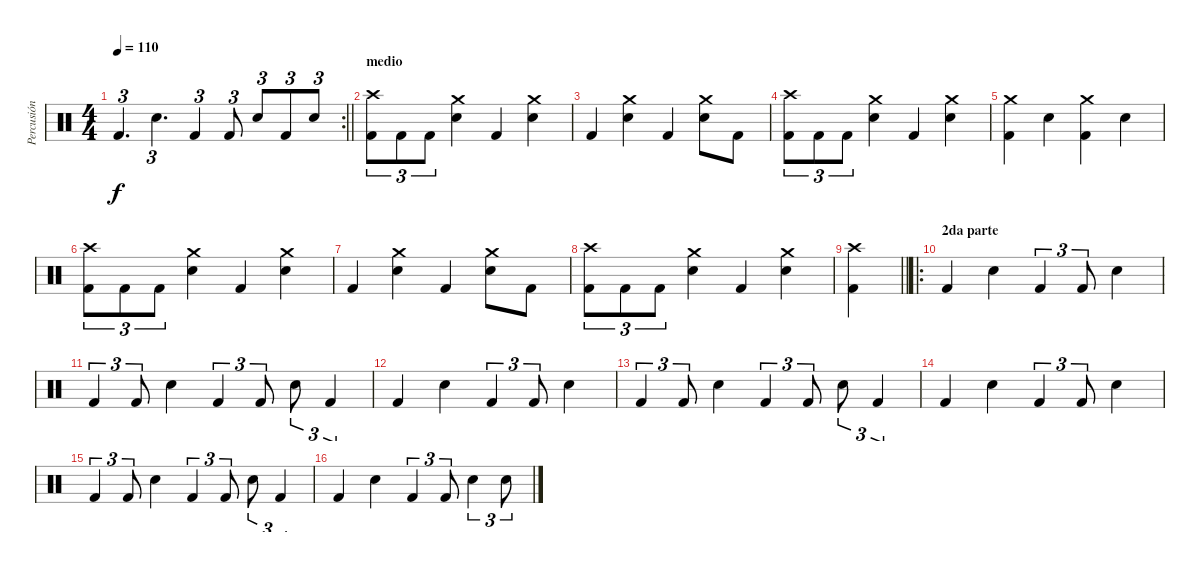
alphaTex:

\track ("Percusión" "Percusión") {instrument percussion}
\staff {score}
\articulation defaults
\rc 2
\ts (4 4)
\tempo 110
\clef neutral
\barLineRight lightlight
\ks c "Kick (hit) 2".4{d tu (3 2) dy f} "Electric Snare (hit)".4{d tu (3 2)} "Kick (hit) 2".4{tu (3 2)} "Kick (hit) 2".8{tu (3 2)} "Electric Snare (hit)".8{tu (3 2)} "Kick (hit) 2".8{tu (3 2)} "Electric Snare (hit)".8{tu (3 2)}
|
\section ("" "medio")
("Crash high (hit)" "Kick (hit) 2").8{tu (3 2)} "Kick (hit) 2".8{tu (3 2)} "Kick (hit) 2".8{tu (3 2)} ("Crash medium (hit)" "Electric Snare (hit)").4 "Kick (hit) 2".4 ("Crash medium (hit)" "Electric Snare (hit)").4 |
"Kick (hit) 2".4 ("Crash medium (hit)" "Electric Snare (hit)").4 "Kick (hit) 2".4 ("Crash medium (hit)" "Electric Snare (hit)").8 "Kick (hit) 2".8 |
("Crash high (hit)" "Kick (hit) 2").8{tu (3 2)} "Kick (hit) 2".8{tu (3 2)} "Kick (hit) 2".8{tu (3 2)} ("Crash medium (hit)" "Electric Snare (hit)").4 "Kick (hit) 2".4 ("Crash medium (hit)" "Electric Snare (hit)").4 |
("Crash medium (hit)" "Kick (hit) 2").4 "Electric Snare (hit)".4 ("Crash medium (hit)" "Kick (hit) 2").4 "Electric Snare (hit)".4 |
("Crash high (hit)" "Kick (hit) 2").8{tu (3 2)} "Kick (hit) 2".8{tu (3 2)} "Kick (hit) 2".8{tu (3 2)} ("Crash medium (hit)" "Electric Snare (hit)").4 "Kick (hit) 2".4 ("Crash medium (hit)" "Electric Snare (hit)").4 |
"Kick (hit) 2".4 ("Crash medium (hit)" "Electric Snare (hit)").4 "Kick (hit) 2".4 ("Crash medium (hit)" "Electric Snare (hit)").8 "Kick (hit) 2".8 |
("Crash high (hit)" "Kick (hit) 2").8{tu (3 2)} "Kick (hit) 2".8{tu (3 2)} "Kick (hit) 2".8{tu (3 2)} ("Crash medium (hit)" "Electric Snare (hit)").4 "Kick (hit) 2".4 ("Crash medium (hit)" "Electric Snare (hit)").4 |
\barLineRight lightlight
("Crash high (hit)" "Kick (hit) 2").4 |
\ro
\section ("" "2da parte")
"Kick (hit) 2".4 "Electric Snare (hit)".4 "Kick (hit) 2".4{tu (3 2)} "Kick (hit) 2".8{tu (3 2)} "Electric Snare (hit)".4 |
"Kick (hit) 2".4{tu (3 2)} "Kick (hit) 2".8{tu (3 2)} "Electric Snare (hit)".4 "Kick (hit) 2".4{tu (3 2)} "Kick (hit) 2".8{tu (3 2)} "Electric Snare (hit)".8{tu (3 2)} "Kick (hit) 2".4{tu (3 2)} |
"Kick (hit) 2".4 "Electric Snare (hit)".4 "Kick (hit) 2".4{tu (3 2)} "Kick (hit) 2".8{tu (3 2)} "Electric Snare (hit)".4 |
"Kick (hit) 2".4{tu (3 2)} "Kick (hit) 2".8{tu (3 2)} "Electric Snare (hit)".4 "Kick (hit) 2".4{tu (3 2)} "Kick (hit) 2".8{tu (3 2)} "Electric Snare (hit)".8{tu (3 2)} "Kick (hit) 2".4{tu (3 2)} |
"Kick (hit) 2".4 "Electric Snare (hit)".4 "Kick (hit) 2".4{tu (3 2)} "Kick (hit) 2".8{tu (3 2)} "Electric Snare (hit)".4 |
"Kick (hit) 2".4{tu (3 2)} "Kick (hit) 2".8{tu (3 2)} "Electric Snare (hit)".4 "Kick (hit) 2".4{tu (3 2)} "Kick (hit) 2".8{tu (3 2)} "Electric Snare (hit)".8{tu (3 2)} "Kick (hit) 2".4{tu (3 2)} |
"Kick (hit) 2".4 "Electric Snare (hit)".4 "Kick (hit) 2".4{tu (3 2)} "Kick (hit) 2".8{tu (3 2)} "Electric Snare (hit)".4{tu (3 2)} "Electric Snare (hit)".8{tu (3 2)}
